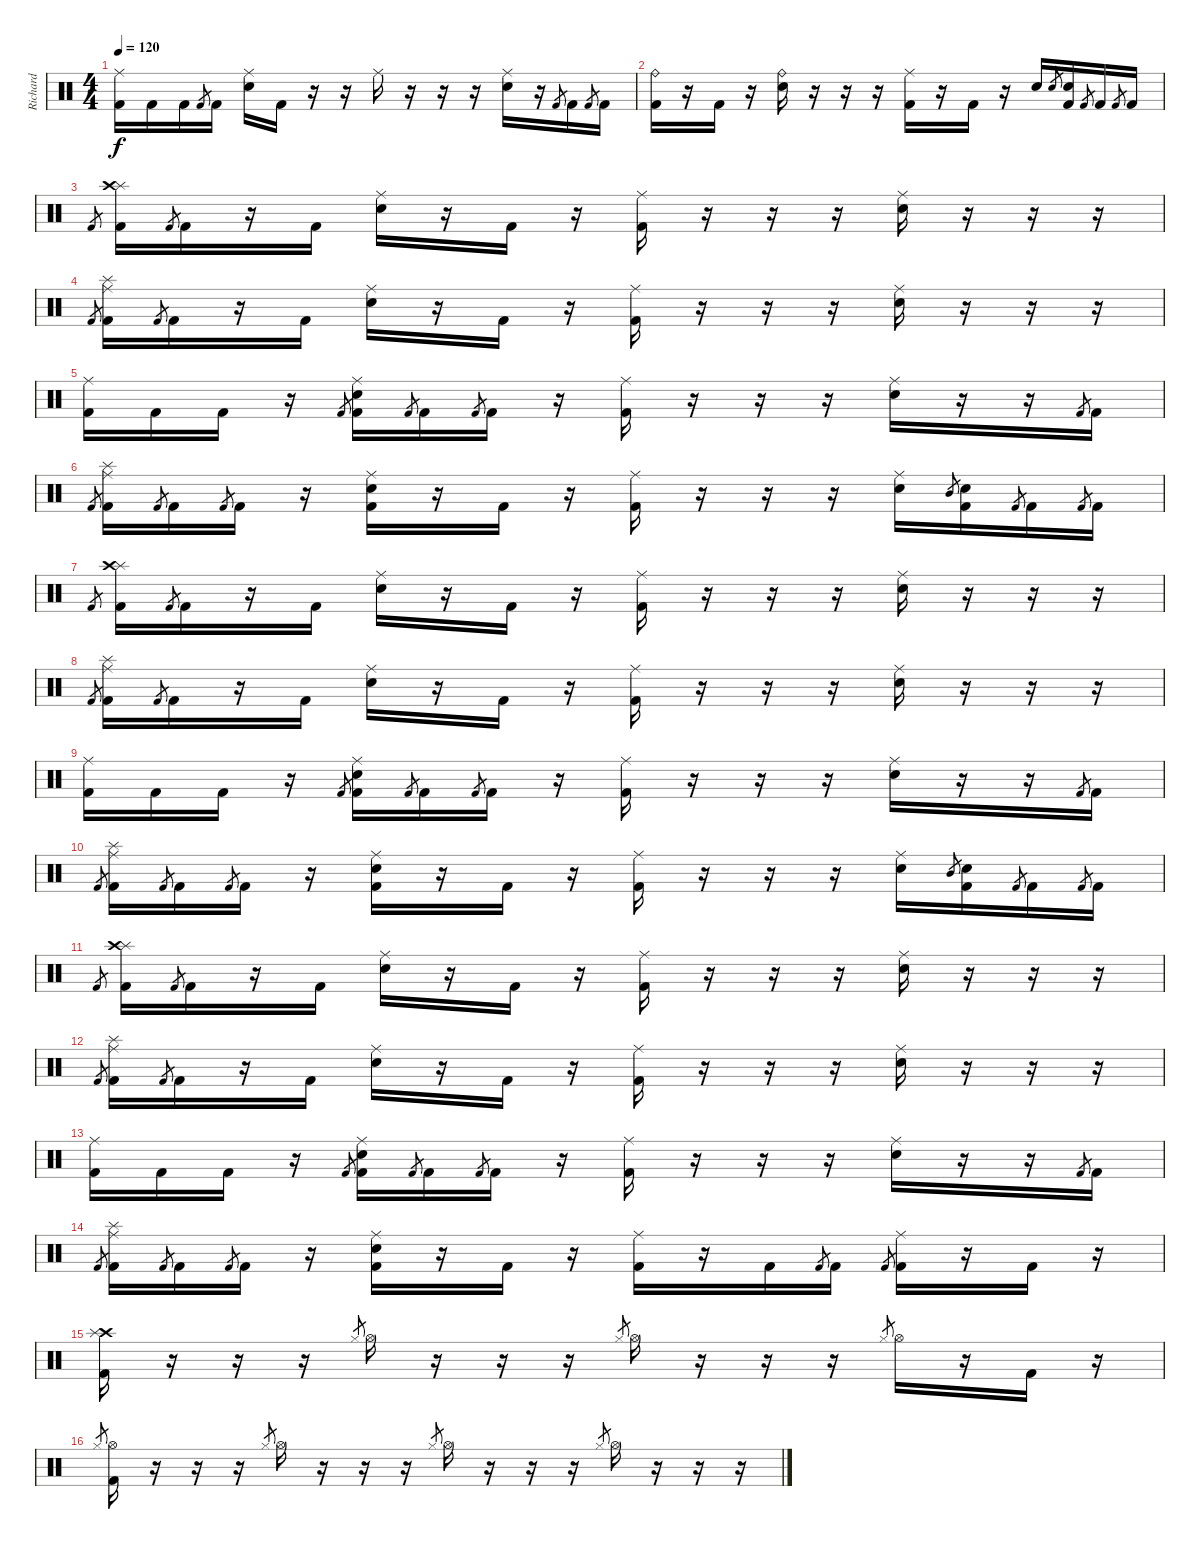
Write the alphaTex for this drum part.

\track ("Richard " "Richard ") {instrument percussion}
\staff {score}
\articulation defaults
\ts (4 4)
\tempo 120
\clef neutral
\ks c
("Ride (middle)" "Kick (hit) 2").16{dy f} "Kick (hit) 2".16 "Kick (hit) 2".16 "Kick (hit) 2".8{gr} "Kick (hit) 2".16 ("Ride (middle)" "Snare (hit) 2").16 "Kick (hit) 2".16 r.16 r.16 "Ride (middle)".16 r.16 r.16 r.16 ("Ride (middle)" "Snare (hit) 2").16 r.16 "Kick (hit) 2".8{gr} "Kick (hit) 2".16 "Kick (hit) 2".8{gr} "Kick (hit) 2".16 |
("Ride (bell)" "Kick (hit) 2").16 r.16 "Kick (hit) 2".16 r.16 ("Ride (bell)" "Snare (hit) 2").16 r.16 r.16 r.16 ("Ride (middle)" "Kick (hit) 2").16 r.16 "Kick (hit) 2".16 r.16 "Snare (hit) 2".16 "Snare (hit) 2".8{gr} ("Snare (hit) 2" "Kick (hit) 2").16 "Kick (hit) 2".8{gr} "Kick (hit) 2".16 "Kick (hit) 2".8{gr} "Kick (hit) 2".16 |
"Kick (hit) 2".8{gr} ("Splash (hit)" "Crash high (hit)" "Kick (hit) 2").16 "Kick (hit) 2".8{gr} "Kick (hit) 2".16 r.16 "Kick (hit) 2".16 ("Ride (middle)" "Snare (hit) 2").16 r.16 "Kick (hit) 2".16 r.16 ("Ride (middle)" "Kick (hit) 2").16 r.16 r.16 r.16 ("Ride (middle)" "Snare (hit) 2").16 r.16 r.16 r.16 |
"Kick (hit) 2".8{gr} ("Ride (middle)" "Splash (hit)" "Kick (hit) 2").16 "Kick (hit) 2".8{gr} "Kick (hit) 2".16 r.16 "Kick (hit) 2".16 ("Ride (middle)" "Snare (hit) 2").16 r.16 "Kick (hit) 2".16 r.16 ("Ride (middle)" "Kick (hit) 2").16 r.16 r.16 r.16 ("Ride (middle)" "Snare (hit) 2").16 r.16 r.16 r.16 |
("Ride (middle)" "Kick (hit) 2").16 "Kick (hit) 2".16 "Kick (hit) 2".16 r.16 "Kick (hit) 2".8{gr} ("Ride (middle)" "Snare (hit) 2" "Kick (hit) 2").16 "Kick (hit) 2".8{gr} "Kick (hit) 2".16 "Kick (hit) 2".8{gr} "Kick (hit) 2".16 r.16 ("Ride (middle)" "Kick (hit) 2").16 r.16 r.16 r.16 ("Ride (middle)" "Snare (hit) 2").16 r.16 r.16 "Kick (hit) 2".8{gr} "Kick (hit) 2".16 |
"Kick (hit) 2".8{gr} ("Ride (middle)" "Splash (hit)" "Kick (hit) 2").16 "Kick (hit) 2".8{gr} "Kick (hit) 2".16 "Kick (hit) 2".8{gr} "Kick (hit) 2".16 r.16 ("Ride (middle)" "Snare (hit) 2" "Kick (hit) 2").16 r.16 "Kick (hit) 2".16 r.16 ("Ride (middle)" "Kick (hit) 2").16 r.16 r.16 r.16 ("Ride (middle)" "Snare (hit) 2").16 "Mid Tom (hit)".8{gr} ("Snare (hit) 2" "Kick (hit) 2").16 "Kick (hit) 2".8{gr} "Kick (hit) 2".16 "Kick (hit) 2".8{gr} "Kick (hit) 2".16 |
"Kick (hit) 2".8{gr} ("Splash (hit)" "Crash high (hit)" "Kick (hit) 2").16 "Kick (hit) 2".8{gr} "Kick (hit) 2".16 r.16 "Kick (hit) 2".16 ("Ride (middle)" "Snare (hit) 2").16 r.16 "Kick (hit) 2".16 r.16 ("Ride (middle)" "Kick (hit) 2").16 r.16 r.16 r.16 ("Ride (middle)" "Snare (hit) 2").16 r.16 r.16 r.16 |
"Kick (hit) 2".8{gr} ("Ride (middle)" "Splash (hit)" "Kick (hit) 2").16 "Kick (hit) 2".8{gr} "Kick (hit) 2".16 r.16 "Kick (hit) 2".16 ("Ride (middle)" "Snare (hit) 2").16 r.16 "Kick (hit) 2".16 r.16 ("Ride (middle)" "Kick (hit) 2").16 r.16 r.16 r.16 ("Ride (middle)" "Snare (hit) 2").16 r.16 r.16 r.16 |
("Ride (middle)" "Kick (hit) 2").16 "Kick (hit) 2".16 "Kick (hit) 2".16 r.16 "Kick (hit) 2".8{gr} ("Ride (middle)" "Snare (hit) 2" "Kick (hit) 2").16 "Kick (hit) 2".8{gr} "Kick (hit) 2".16 "Kick (hit) 2".8{gr} "Kick (hit) 2".16 r.16 ("Ride (middle)" "Kick (hit) 2").16 r.16 r.16 r.16 ("Ride (middle)" "Snare (hit) 2").16 r.16 r.16 "Kick (hit) 2".8{gr} "Kick (hit) 2".16 |
"Kick (hit) 2".8{gr} ("Ride (middle)" "Splash (hit)" "Kick (hit) 2").16 "Kick (hit) 2".8{gr} "Kick (hit) 2".16 "Kick (hit) 2".8{gr} "Kick (hit) 2".16 r.16 ("Ride (middle)" "Snare (hit) 2" "Kick (hit) 2").16 r.16 "Kick (hit) 2".16 r.16 ("Ride (middle)" "Kick (hit) 2").16 r.16 r.16 r.16 ("Ride (middle)" "Snare (hit) 2").16 "Mid Tom (hit)".8{gr} ("Snare (hit) 2" "Kick (hit) 2").16 "Kick (hit) 2".8{gr} "Kick (hit) 2".16 "Kick (hit) 2".8{gr} "Kick (hit) 2".16 |
"Kick (hit) 2".8{gr} ("Splash (hit)" "Crash high (hit)" "Kick (hit) 2").16 "Kick (hit) 2".8{gr} "Kick (hit) 2".16 r.16 "Kick (hit) 2".16 ("Ride (middle)" "Snare (hit) 2").16 r.16 "Kick (hit) 2".16 r.16 ("Ride (middle)" "Kick (hit) 2").16 r.16 r.16 r.16 ("Ride (middle)" "Snare (hit) 2").16 r.16 r.16 r.16 |
"Kick (hit) 2".8{gr} ("Ride (middle)" "Splash (hit)" "Kick (hit) 2").16 "Kick (hit) 2".8{gr} "Kick (hit) 2".16 r.16 "Kick (hit) 2".16 ("Ride (middle)" "Snare (hit) 2").16 r.16 "Kick (hit) 2".16 r.16 ("Ride (middle)" "Kick (hit) 2").16 r.16 r.16 r.16 ("Ride (middle)" "Snare (hit) 2").16 r.16 r.16 r.16 |
("Ride (middle)" "Kick (hit) 2").16 "Kick (hit) 2".16 "Kick (hit) 2".16 r.16 "Kick (hit) 2".8{gr} ("Ride (middle)" "Snare (hit) 2" "Kick (hit) 2").16 "Kick (hit) 2".8{gr} "Kick (hit) 2".16 "Kick (hit) 2".8{gr} "Kick (hit) 2".16 r.16 ("Ride (middle)" "Kick (hit) 2").16 r.16 r.16 r.16 ("Ride (middle)" "Snare (hit) 2").16 r.16 r.16 "Kick (hit) 2".8{gr} "Kick (hit) 2".16 |
"Kick (hit) 2".8{gr} ("Ride (middle)" "Splash (hit)" "Kick (hit) 2").16 "Kick (hit) 2".8{gr} "Kick (hit) 2".16 "Kick (hit) 2".8{gr} "Kick (hit) 2".16 r.16 ("Ride (middle)" "Snare (hit) 2" "Kick (hit) 2").16 r.16 "Kick (hit) 2".16 r.16 ("Ride (middle)" "Kick (hit) 2").16 r.16 "Kick (hit) 2".16 "Kick (hit) 2".8{gr} "Kick (hit) 2".16 "Kick (hit) 2".8{gr} ("Ride (middle)" "Kick (hit) 2").16 r.16 "Kick (hit) 2".16 r.16 |
("Crash high (hit)" "Splash (hit)" "Kick (hit) 2").16 r.16 r.16 r.16 "Hi-Hat (closed)".8{gr} "Hi-Hat (open)".16 r.16 r.16 r.16 "Hi-Hat (closed)".8{gr} "Hi-Hat (open)".16 r.16 r.16 r.16 "Hi-Hat (closed)".8{gr} "Hi-Hat (open)".16 r.16 "Kick (hit) 2".16 r.16 |
"Hi-Hat (closed)".8{gr} ("Hi-Hat (open)" "Kick (hit) 2").16 r.16 r.16 r.16 "Hi-Hat (closed)".8{gr} "Hi-Hat (open)".16 r.16 r.16 r.16 "Hi-Hat (closed)".8{gr} "Hi-Hat (open)".16 r.16 r.16 r.16 "Hi-Hat (closed)".8{gr} "Hi-Hat (open)".16 r.16 r.16 r.16
